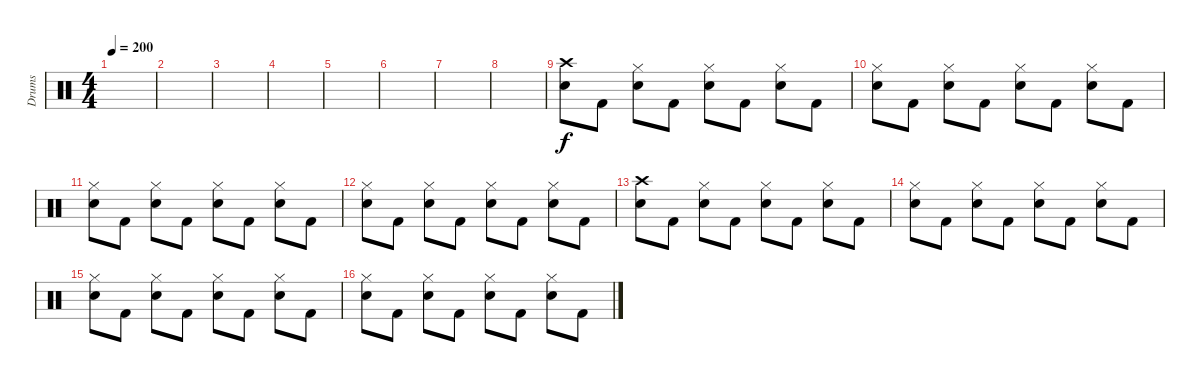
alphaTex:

\track ("Drums" "Drums") {instrument percussion}
\staff {score}
\articulation defaults
\ts (4 4)
\tempo 200
\clef neutral
\ks c
|
|
|
|
|
|
|
|
("Crash high (hit)" "Snare (hit) 2").8 "Kick (hit) 2".8 ("Hi-Hat (closed)" "Snare (hit) 2").8 "Kick (hit) 2".8 ("Hi-Hat (closed)" "Snare (hit) 2").8 "Kick (hit) 2".8 ("Hi-Hat (closed)" "Snare (hit) 2").8 "Kick (hit) 2".8 |
("Hi-Hat (closed)" "Snare (hit) 2").8 "Kick (hit) 2".8 ("Hi-Hat (closed)" "Snare (hit) 2").8 "Kick (hit) 2".8 ("Hi-Hat (closed)" "Snare (hit) 2").8 "Kick (hit) 2".8 ("Hi-Hat (closed)" "Snare (hit) 2").8 "Kick (hit) 2".8 |
("Hi-Hat (closed)" "Snare (hit) 2").8 "Kick (hit) 2".8 ("Hi-Hat (closed)" "Snare (hit) 2").8 "Kick (hit) 2".8 ("Hi-Hat (closed)" "Snare (hit) 2").8 "Kick (hit) 2".8 ("Hi-Hat (closed)" "Snare (hit) 2").8 "Kick (hit) 2".8 |
("Hi-Hat (closed)" "Snare (hit) 2").8 "Kick (hit) 2".8 ("Hi-Hat (closed)" "Snare (hit) 2").8 "Kick (hit) 2".8 ("Hi-Hat (closed)" "Snare (hit) 2").8 "Kick (hit) 2".8 ("Hi-Hat (closed)" "Snare (hit) 2").8 "Kick (hit) 2".8 |
("Crash high (hit)" "Snare (hit) 2").8 "Kick (hit) 2".8 ("Hi-Hat (closed)" "Snare (hit) 2").8 "Kick (hit) 2".8 ("Hi-Hat (closed)" "Snare (hit) 2").8 "Kick (hit) 2".8 ("Hi-Hat (closed)" "Snare (hit) 2").8 "Kick (hit) 2".8 |
("Hi-Hat (closed)" "Snare (hit) 2").8 "Kick (hit) 2".8 ("Hi-Hat (closed)" "Snare (hit) 2").8 "Kick (hit) 2".8 ("Hi-Hat (closed)" "Snare (hit) 2").8 "Kick (hit) 2".8 ("Hi-Hat (closed)" "Snare (hit) 2").8 "Kick (hit) 2".8 |
("Hi-Hat (closed)" "Snare (hit) 2").8 "Kick (hit) 2".8 ("Hi-Hat (closed)" "Snare (hit) 2").8 "Kick (hit) 2".8 ("Hi-Hat (closed)" "Snare (hit) 2").8 "Kick (hit) 2".8 ("Hi-Hat (closed)" "Snare (hit) 2").8 "Kick (hit) 2".8 |
("Hi-Hat (closed)" "Snare (hit) 2").8 "Kick (hit) 2".8 ("Hi-Hat (closed)" "Snare (hit) 2").8 "Kick (hit) 2".8 ("Hi-Hat (closed)" "Snare (hit) 2").8 "Kick (hit) 2".8 ("Hi-Hat (closed)" "Snare (hit) 2").8 "Kick (hit) 2".8
